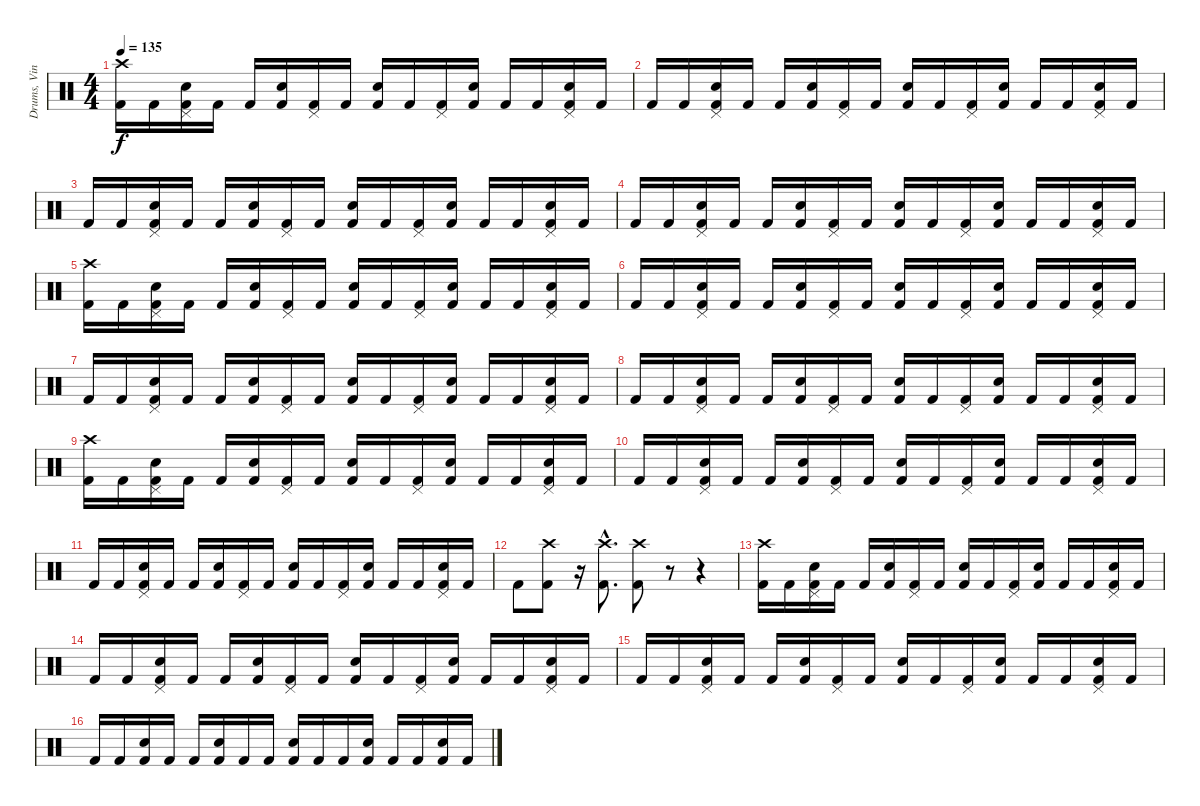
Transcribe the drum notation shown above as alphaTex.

\track ("Drums, Vinnie" "Drums, Vin") {instrument percussion}
\staff {score}
\articulation defaults
\ts (4 4)
\tempo 135
\clef neutral
\ks c
("Crash high (hit)" "Kick (hit) 2").16{dy f} "Kick (hit) 2".16 ("Pedal Hi-Hat (hit)" "Electric Snare (hit)" "Kick (hit) 2").16 "Kick (hit) 2".16 "Kick (hit) 2".16 ("Electric Snare (hit)" "Kick (hit) 2").16 ("Pedal Hi-Hat (hit)" "Kick (hit) 2").16 "Kick (hit) 2".16 ("Electric Snare (hit)" "Kick (hit) 2").16 "Kick (hit) 2".16 ("Pedal Hi-Hat (hit)" "Kick (hit) 2").16 ("Electric Snare (hit)" "Kick (hit) 2").16 "Kick (hit) 2".16 "Kick (hit) 2".16 ("Pedal Hi-Hat (hit)" "Electric Snare (hit)" "Kick (hit) 2").16 "Kick (hit) 2".16 |
"Kick (hit) 2".16 "Kick (hit) 2".16 ("Pedal Hi-Hat (hit)" "Electric Snare (hit)" "Kick (hit) 2").16 "Kick (hit) 2".16 "Kick (hit) 2".16 ("Electric Snare (hit)" "Kick (hit) 2").16 ("Pedal Hi-Hat (hit)" "Kick (hit) 2").16 "Kick (hit) 2".16 ("Electric Snare (hit)" "Kick (hit) 2").16 "Kick (hit) 2".16 ("Pedal Hi-Hat (hit)" "Kick (hit) 2").16 ("Electric Snare (hit)" "Kick (hit) 2").16 "Kick (hit) 2".16 "Kick (hit) 2".16 ("Pedal Hi-Hat (hit)" "Electric Snare (hit)" "Kick (hit) 2").16 "Kick (hit) 2".16 |
"Kick (hit) 2".16 "Kick (hit) 2".16 ("Pedal Hi-Hat (hit)" "Electric Snare (hit)" "Kick (hit) 2").16 "Kick (hit) 2".16 "Kick (hit) 2".16 ("Electric Snare (hit)" "Kick (hit) 2").16 ("Pedal Hi-Hat (hit)" "Kick (hit) 2").16 "Kick (hit) 2".16 ("Electric Snare (hit)" "Kick (hit) 2").16 "Kick (hit) 2".16 ("Pedal Hi-Hat (hit)" "Kick (hit) 2").16 ("Electric Snare (hit)" "Kick (hit) 2").16 "Kick (hit) 2".16 "Kick (hit) 2".16 ("Pedal Hi-Hat (hit)" "Electric Snare (hit)" "Kick (hit) 2").16 "Kick (hit) 2".16 |
"Kick (hit) 2".16 "Kick (hit) 2".16 ("Pedal Hi-Hat (hit)" "Electric Snare (hit)" "Kick (hit) 2").16 "Kick (hit) 2".16 "Kick (hit) 2".16 ("Electric Snare (hit)" "Kick (hit) 2").16 ("Pedal Hi-Hat (hit)" "Kick (hit) 2").16 "Kick (hit) 2".16 ("Electric Snare (hit)" "Kick (hit) 2").16 "Kick (hit) 2".16 ("Pedal Hi-Hat (hit)" "Kick (hit) 2").16 ("Electric Snare (hit)" "Kick (hit) 2").16 "Kick (hit) 2".16 "Kick (hit) 2".16 ("Pedal Hi-Hat (hit)" "Electric Snare (hit)" "Kick (hit) 2").16 "Kick (hit) 2".16 |
("Crash high (hit)" "Kick (hit) 2").16 "Kick (hit) 2".16 ("Pedal Hi-Hat (hit)" "Electric Snare (hit)" "Kick (hit) 2").16 "Kick (hit) 2".16 "Kick (hit) 2".16 ("Electric Snare (hit)" "Kick (hit) 2").16 ("Pedal Hi-Hat (hit)" "Kick (hit) 2").16 "Kick (hit) 2".16 ("Electric Snare (hit)" "Kick (hit) 2").16 "Kick (hit) 2".16 ("Pedal Hi-Hat (hit)" "Kick (hit) 2").16 ("Electric Snare (hit)" "Kick (hit) 2").16 "Kick (hit) 2".16 "Kick (hit) 2".16 ("Pedal Hi-Hat (hit)" "Electric Snare (hit)" "Kick (hit) 2").16 "Kick (hit) 2".16 |
"Kick (hit) 2".16 "Kick (hit) 2".16 ("Pedal Hi-Hat (hit)" "Electric Snare (hit)" "Kick (hit) 2").16 "Kick (hit) 2".16 "Kick (hit) 2".16 ("Electric Snare (hit)" "Kick (hit) 2").16 ("Pedal Hi-Hat (hit)" "Kick (hit) 2").16 "Kick (hit) 2".16 ("Electric Snare (hit)" "Kick (hit) 2").16 "Kick (hit) 2".16 ("Pedal Hi-Hat (hit)" "Kick (hit) 2").16 ("Electric Snare (hit)" "Kick (hit) 2").16 "Kick (hit) 2".16 "Kick (hit) 2".16 ("Pedal Hi-Hat (hit)" "Electric Snare (hit)" "Kick (hit) 2").16 "Kick (hit) 2".16 |
"Kick (hit) 2".16 "Kick (hit) 2".16 ("Pedal Hi-Hat (hit)" "Electric Snare (hit)" "Kick (hit) 2").16 "Kick (hit) 2".16 "Kick (hit) 2".16 ("Electric Snare (hit)" "Kick (hit) 2").16 ("Pedal Hi-Hat (hit)" "Kick (hit) 2").16 "Kick (hit) 2".16 ("Electric Snare (hit)" "Kick (hit) 2").16 "Kick (hit) 2".16 ("Pedal Hi-Hat (hit)" "Kick (hit) 2").16 ("Electric Snare (hit)" "Kick (hit) 2").16 "Kick (hit) 2".16 "Kick (hit) 2".16 ("Pedal Hi-Hat (hit)" "Electric Snare (hit)" "Kick (hit) 2").16 "Kick (hit) 2".16 |
"Kick (hit) 2".16 "Kick (hit) 2".16 ("Pedal Hi-Hat (hit)" "Electric Snare (hit)" "Kick (hit) 2").16 "Kick (hit) 2".16 "Kick (hit) 2".16 ("Electric Snare (hit)" "Kick (hit) 2").16 ("Pedal Hi-Hat (hit)" "Kick (hit) 2").16 "Kick (hit) 2".16 ("Electric Snare (hit)" "Kick (hit) 2").16 "Kick (hit) 2".16 ("Pedal Hi-Hat (hit)" "Kick (hit) 2").16 ("Electric Snare (hit)" "Kick (hit) 2").16 "Kick (hit) 2".16 "Kick (hit) 2".16 ("Pedal Hi-Hat (hit)" "Electric Snare (hit)" "Kick (hit) 2").16 "Kick (hit) 2".16 |
("Crash high (hit)" "Kick (hit) 2").16 "Kick (hit) 2".16 ("Pedal Hi-Hat (hit)" "Electric Snare (hit)" "Kick (hit) 2").16 "Kick (hit) 2".16 "Kick (hit) 2".16 ("Electric Snare (hit)" "Kick (hit) 2").16 ("Pedal Hi-Hat (hit)" "Kick (hit) 2").16 "Kick (hit) 2".16 ("Electric Snare (hit)" "Kick (hit) 2").16 "Kick (hit) 2".16 ("Pedal Hi-Hat (hit)" "Kick (hit) 2").16 ("Electric Snare (hit)" "Kick (hit) 2").16 "Kick (hit) 2".16 "Kick (hit) 2".16 ("Pedal Hi-Hat (hit)" "Electric Snare (hit)" "Kick (hit) 2").16 "Kick (hit) 2".16 |
"Kick (hit) 2".16 "Kick (hit) 2".16 ("Pedal Hi-Hat (hit)" "Electric Snare (hit)" "Kick (hit) 2").16 "Kick (hit) 2".16 "Kick (hit) 2".16 ("Electric Snare (hit)" "Kick (hit) 2").16 ("Pedal Hi-Hat (hit)" "Kick (hit) 2").16 "Kick (hit) 2".16 ("Electric Snare (hit)" "Kick (hit) 2").16 "Kick (hit) 2".16 ("Pedal Hi-Hat (hit)" "Kick (hit) 2").16 ("Electric Snare (hit)" "Kick (hit) 2").16 "Kick (hit) 2".16 "Kick (hit) 2".16 ("Pedal Hi-Hat (hit)" "Electric Snare (hit)" "Kick (hit) 2").16 "Kick (hit) 2".16 |
"Kick (hit) 2".16 "Kick (hit) 2".16 ("Pedal Hi-Hat (hit)" "Electric Snare (hit)" "Kick (hit) 2").16 "Kick (hit) 2".16 "Kick (hit) 2".16 ("Electric Snare (hit)" "Kick (hit) 2").16 ("Pedal Hi-Hat (hit)" "Kick (hit) 2").16 "Kick (hit) 2".16 ("Electric Snare (hit)" "Kick (hit) 2").16 "Kick (hit) 2".16 ("Pedal Hi-Hat (hit)" "Kick (hit) 2").16 ("Electric Snare (hit)" "Kick (hit) 2").16 "Kick (hit) 2".16 "Kick (hit) 2".16 ("Pedal Hi-Hat (hit)" "Electric Snare (hit)" "Kick (hit) 2").16 "Kick (hit) 2".16 |
"Kick (hit) 2".8 ("Crash high (hit)" "Kick (hit) 2").8 r.16 ("Crash high (hit)"{hac} "Kick (hit) 2"{hac}).8{d} ("Crash high (hit)" "Kick (hit) 2").8 r.8 r.4 |
("Crash high (hit)" "Kick (hit) 2").16 "Kick (hit) 2".16 ("Pedal Hi-Hat (hit)" "Electric Snare (hit)" "Kick (hit) 2").16 "Kick (hit) 2".16 "Kick (hit) 2".16 ("Electric Snare (hit)" "Kick (hit) 2").16 ("Pedal Hi-Hat (hit)" "Kick (hit) 2").16 "Kick (hit) 2".16 ("Electric Snare (hit)" "Kick (hit) 2").16 "Kick (hit) 2".16 ("Pedal Hi-Hat (hit)" "Kick (hit) 2").16 ("Electric Snare (hit)" "Kick (hit) 2").16 "Kick (hit) 2".16 "Kick (hit) 2".16 ("Pedal Hi-Hat (hit)" "Electric Snare (hit)" "Kick (hit) 2").16 "Kick (hit) 2".16 |
"Kick (hit) 2".16 "Kick (hit) 2".16 ("Pedal Hi-Hat (hit)" "Electric Snare (hit)" "Kick (hit) 2").16 "Kick (hit) 2".16 "Kick (hit) 2".16 ("Electric Snare (hit)" "Kick (hit) 2").16 ("Pedal Hi-Hat (hit)" "Kick (hit) 2").16 "Kick (hit) 2".16 ("Electric Snare (hit)" "Kick (hit) 2").16 "Kick (hit) 2".16 ("Pedal Hi-Hat (hit)" "Kick (hit) 2").16 ("Electric Snare (hit)" "Kick (hit) 2").16 "Kick (hit) 2".16 "Kick (hit) 2".16 ("Pedal Hi-Hat (hit)" "Electric Snare (hit)" "Kick (hit) 2").16 "Kick (hit) 2".16 |
"Kick (hit) 2".16 "Kick (hit) 2".16 ("Pedal Hi-Hat (hit)" "Electric Snare (hit)" "Kick (hit) 2").16 "Kick (hit) 2".16 "Kick (hit) 2".16 ("Electric Snare (hit)" "Kick (hit) 2").16 ("Pedal Hi-Hat (hit)" "Kick (hit) 2").16 "Kick (hit) 2".16 ("Electric Snare (hit)" "Kick (hit) 2").16 "Kick (hit) 2".16 ("Pedal Hi-Hat (hit)" "Kick (hit) 2").16 ("Electric Snare (hit)" "Kick (hit) 2").16 "Kick (hit) 2".16 "Kick (hit) 2".16 ("Pedal Hi-Hat (hit)" "Electric Snare (hit)" "Kick (hit) 2").16 "Kick (hit) 2".16 |
"Kick (hit) 2".16 "Kick (hit) 2".16 ("Electric Snare (hit)" "Kick (hit) 2").16 "Kick (hit) 2".16 "Kick (hit) 2".16 ("Electric Snare (hit)" "Kick (hit) 2").16 "Kick (hit) 2".16 "Kick (hit) 2".16 ("Electric Snare (hit)" "Kick (hit) 2").16 "Kick (hit) 2".16 "Kick (hit) 2".16 ("Electric Snare (hit)" "Kick (hit) 2").16 "Kick (hit) 2".16 "Kick (hit) 2".16 ("Electric Snare (hit)" "Kick (hit) 2").16 "Kick (hit) 2".16
